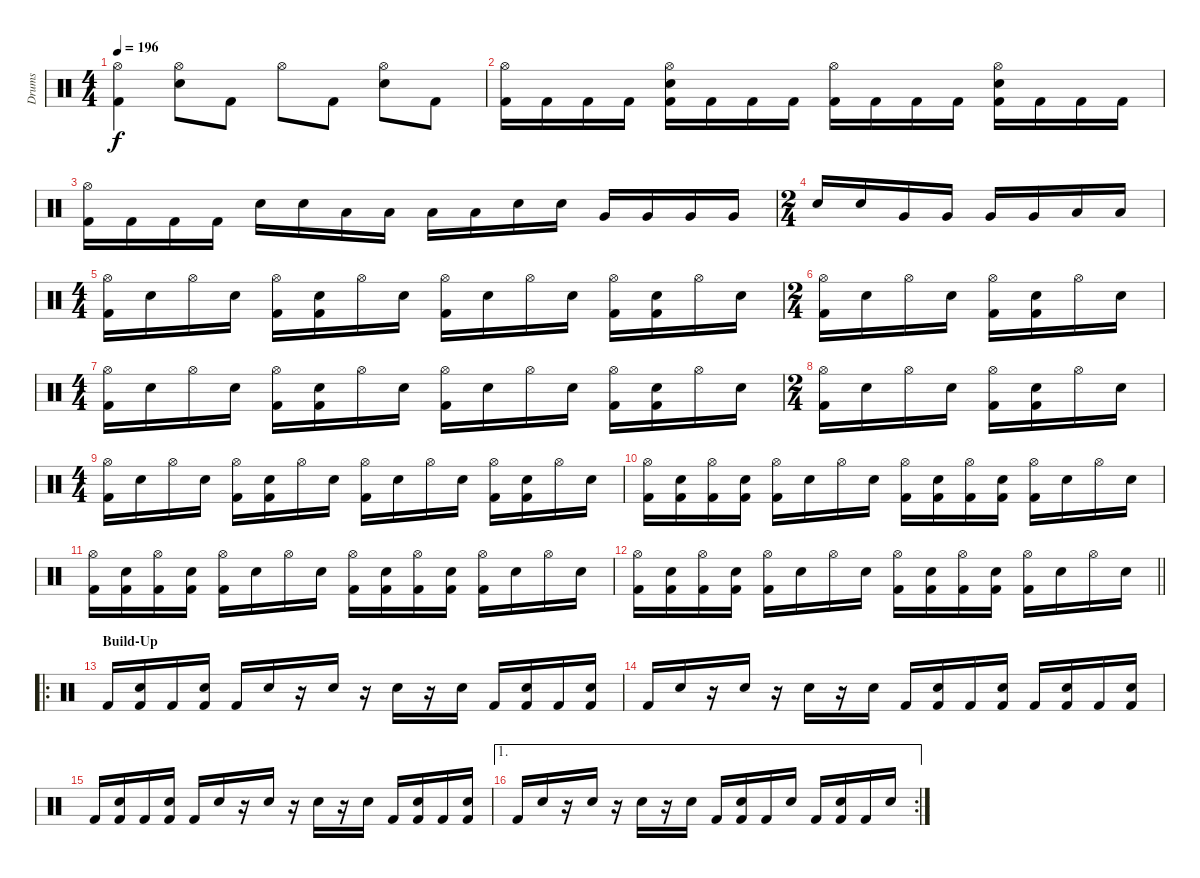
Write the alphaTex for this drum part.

\track ("Drums" "Drums") {instrument percussion}
\staff {score}
\articulation defaults
\ts (4 4)
\tempo 196
\clef neutral
\ks c
("Hi-Hat (open)" "Kick (hit) 2").4{dy f} ("Hi-Hat (open)" "Electric Snare (hit)").8 "Kick (hit) 2".8 "Hi-Hat (open)".8 "Kick (hit) 2".8 ("Hi-Hat (open)" "Electric Snare (hit)").8 "Kick (hit) 2".8 |
("Hi-Hat (open)" "Kick (hit) 2").16 "Kick (hit) 2".16 "Kick (hit) 2".16 "Kick (hit) 2".16 ("Hi-Hat (open)" "Electric Snare (hit)" "Kick (hit) 2").16 "Kick (hit) 2".16 "Kick (hit) 2".16 "Kick (hit) 2".16 ("Hi-Hat (open)" "Kick (hit) 2").16 "Kick (hit) 2".16 "Kick (hit) 2".16 "Kick (hit) 2".16 ("Hi-Hat (open)" "Electric Snare (hit)" "Kick (hit) 2").16 "Kick (hit) 2".16 "Kick (hit) 2".16 "Kick (hit) 2".16 |
("Hi-Hat (open)" "Kick (hit) 2").16 "Kick (hit) 2".16 "Kick (hit) 2".16 "Kick (hit) 2".16 "Electric Snare (hit)".16 "Electric Snare (hit)".16 "Low Tom (hit)".16 "Low Tom (hit)".16 "Low Tom (hit)".16 "Low Tom (hit)".16 "Electric Snare (hit)".16 "Electric Snare (hit)".16 "Very Low Tom (hit)".16 "Very Low Tom (hit)".16 "Very Low Tom (hit)".16 "Very Low Tom (hit)".16 |
\ts (2 4)
"Electric Snare (hit)".16 "Electric Snare (hit)".16 "Very Low Tom (hit)".16 "Very Low Tom (hit)".16 "Very Low Tom (hit)".16 "Very Low Tom (hit)".16 "Low Floor Tom (hit)".16 "Low Floor Tom (hit)".16 |
\ts (4 4)
("Hi-Hat (open)" "Kick (hit) 2").16 "Electric Snare (hit)".16 "Hi-Hat (open)".16 "Electric Snare (hit)".16 ("Hi-Hat (open)" "Kick (hit) 2").16 ("Electric Snare (hit)" "Kick (hit) 2").16 "Hi-Hat (open)".16 "Electric Snare (hit)".16 ("Hi-Hat (open)" "Kick (hit) 2").16 "Electric Snare (hit)".16 "Hi-Hat (open)".16 "Electric Snare (hit)".16 ("Hi-Hat (open)" "Kick (hit) 2").16 ("Electric Snare (hit)" "Kick (hit) 2").16 "Hi-Hat (open)".16 "Electric Snare (hit)".16 |
\ts (2 4)
("Hi-Hat (open)" "Kick (hit) 2").16 "Electric Snare (hit)".16 "Hi-Hat (open)".16 "Electric Snare (hit)".16 ("Hi-Hat (open)" "Kick (hit) 2").16 ("Electric Snare (hit)" "Kick (hit) 2").16 "Hi-Hat (open)".16 "Electric Snare (hit)".16 |
\ts (4 4)
("Hi-Hat (open)" "Kick (hit) 2").16 "Electric Snare (hit)".16 "Hi-Hat (open)".16 "Electric Snare (hit)".16 ("Hi-Hat (open)" "Kick (hit) 2").16 ("Electric Snare (hit)" "Kick (hit) 2").16 "Hi-Hat (open)".16 "Electric Snare (hit)".16 ("Hi-Hat (open)" "Kick (hit) 2").16 "Electric Snare (hit)".16 "Hi-Hat (open)".16 "Electric Snare (hit)".16 ("Hi-Hat (open)" "Kick (hit) 2").16 ("Electric Snare (hit)" "Kick (hit) 2").16 "Hi-Hat (open)".16 "Electric Snare (hit)".16 |
\ts (2 4)
("Hi-Hat (open)" "Kick (hit) 2").16 "Electric Snare (hit)".16 "Hi-Hat (open)".16 "Electric Snare (hit)".16 ("Hi-Hat (open)" "Kick (hit) 2").16 ("Electric Snare (hit)" "Kick (hit) 2").16 "Hi-Hat (open)".16 "Electric Snare (hit)".16 |
\ts (4 4)
("Hi-Hat (open)" "Kick (hit) 2").16 "Electric Snare (hit)".16 "Hi-Hat (open)".16 "Electric Snare (hit)".16 ("Hi-Hat (open)" "Kick (hit) 2").16 ("Electric Snare (hit)" "Kick (hit) 2").16 "Hi-Hat (open)".16 "Electric Snare (hit)".16 ("Hi-Hat (open)" "Kick (hit) 2").16 "Electric Snare (hit)".16 "Hi-Hat (open)".16 "Electric Snare (hit)".16 ("Hi-Hat (open)" "Kick (hit) 2").16 ("Electric Snare (hit)" "Kick (hit) 2").16 "Hi-Hat (open)".16 "Electric Snare (hit)".16 |
("Hi-Hat (open)" "Kick (hit) 2").16 ("Electric Snare (hit)" "Kick (hit) 2").16 ("Hi-Hat (open)" "Kick (hit) 2").16 ("Electric Snare (hit)" "Kick (hit) 2").16 ("Hi-Hat (open)" "Kick (hit) 2").16 "Electric Snare (hit)".16 "Hi-Hat (open)".16 "Electric Snare (hit)".16 ("Hi-Hat (open)" "Kick (hit) 2").16 ("Electric Snare (hit)" "Kick (hit) 2").16 ("Hi-Hat (open)" "Kick (hit) 2").16 ("Electric Snare (hit)" "Kick (hit) 2").16 ("Hi-Hat (open)" "Kick (hit) 2").16 "Electric Snare (hit)".16 "Hi-Hat (open)".16 "Electric Snare (hit)".16 |
("Hi-Hat (open)" "Kick (hit) 2").16 ("Electric Snare (hit)" "Kick (hit) 2").16 ("Hi-Hat (open)" "Kick (hit) 2").16 ("Electric Snare (hit)" "Kick (hit) 2").16 ("Hi-Hat (open)" "Kick (hit) 2").16 "Electric Snare (hit)".16 "Hi-Hat (open)".16 "Electric Snare (hit)".16 ("Hi-Hat (open)" "Kick (hit) 2").16 ("Electric Snare (hit)" "Kick (hit) 2").16 ("Hi-Hat (open)" "Kick (hit) 2").16 ("Electric Snare (hit)" "Kick (hit) 2").16 ("Hi-Hat (open)" "Kick (hit) 2").16 "Electric Snare (hit)".16 "Hi-Hat (open)".16 "Electric Snare (hit)".16 |
\barLineRight lightlight
("Hi-Hat (open)" "Kick (hit) 2").16 ("Electric Snare (hit)" "Kick (hit) 2").16 ("Hi-Hat (open)" "Kick (hit) 2").16 ("Electric Snare (hit)" "Kick (hit) 2").16 ("Hi-Hat (open)" "Kick (hit) 2").16 "Electric Snare (hit)".16 "Hi-Hat (open)".16 "Electric Snare (hit)".16 ("Hi-Hat (open)" "Kick (hit) 2").16 ("Electric Snare (hit)" "Kick (hit) 2").16 ("Hi-Hat (open)" "Kick (hit) 2").16 ("Electric Snare (hit)" "Kick (hit) 2").16 ("Hi-Hat (open)" "Kick (hit) 2").16 "Electric Snare (hit)".16 "Hi-Hat (open)".16 "Electric Snare (hit)".16 |
\ro
\section ("" "Build-Up")
"Kick (hit) 2".16 ("Electric Snare (hit)" "Kick (hit) 2").16 "Kick (hit) 2".16 ("Electric Snare (hit)" "Kick (hit) 2").16 "Kick (hit) 2".16 "Electric Snare (hit)".16 r.16 "Electric Snare (hit)".16 r.16 "Electric Snare (hit)".16 r.16 "Electric Snare (hit)".16 "Kick (hit) 2".16 ("Electric Snare (hit)" "Kick (hit) 2").16 "Kick (hit) 2".16 ("Electric Snare (hit)" "Kick (hit) 2").16 |
"Kick (hit) 2".16 "Electric Snare (hit)".16 r.16 "Electric Snare (hit)".16 r.16 "Electric Snare (hit)".16 r.16 "Electric Snare (hit)".16 "Kick (hit) 2".16 ("Electric Snare (hit)" "Kick (hit) 2").16 "Kick (hit) 2".16 ("Electric Snare (hit)" "Kick (hit) 2").16 "Kick (hit) 2".16 ("Electric Snare (hit)" "Kick (hit) 2").16 "Kick (hit) 2".16 ("Electric Snare (hit)" "Kick (hit) 2").16 |
"Kick (hit) 2".16 ("Electric Snare (hit)" "Kick (hit) 2").16 "Kick (hit) 2".16 ("Electric Snare (hit)" "Kick (hit) 2").16 "Kick (hit) 2".16 "Electric Snare (hit)".16 r.16 "Electric Snare (hit)".16 r.16 "Electric Snare (hit)".16 r.16 "Electric Snare (hit)".16 "Kick (hit) 2".16 ("Electric Snare (hit)" "Kick (hit) 2").16 "Kick (hit) 2".16 ("Electric Snare (hit)" "Kick (hit) 2").16 |
\ae 1
\rc 2 "Kick (hit) 2".16 "Electric Snare (hit)".16
r.16 "Electric Snare (hit)".16 r.16 "Electric Snare (hit)".16 r.16 "Electric Snare (hit)".16 "Kick (hit) 2".16 ("Electric Snare (hit)" "Kick (hit) 2").16 "Kick (hit) 2".16 "Electric Snare (hit)".16 "Kick (hit) 2".16 ("Electric Snare (hit)" "Kick (hit) 2").16 "Kick (hit) 2".16 "Electric Snare (hit)".16
